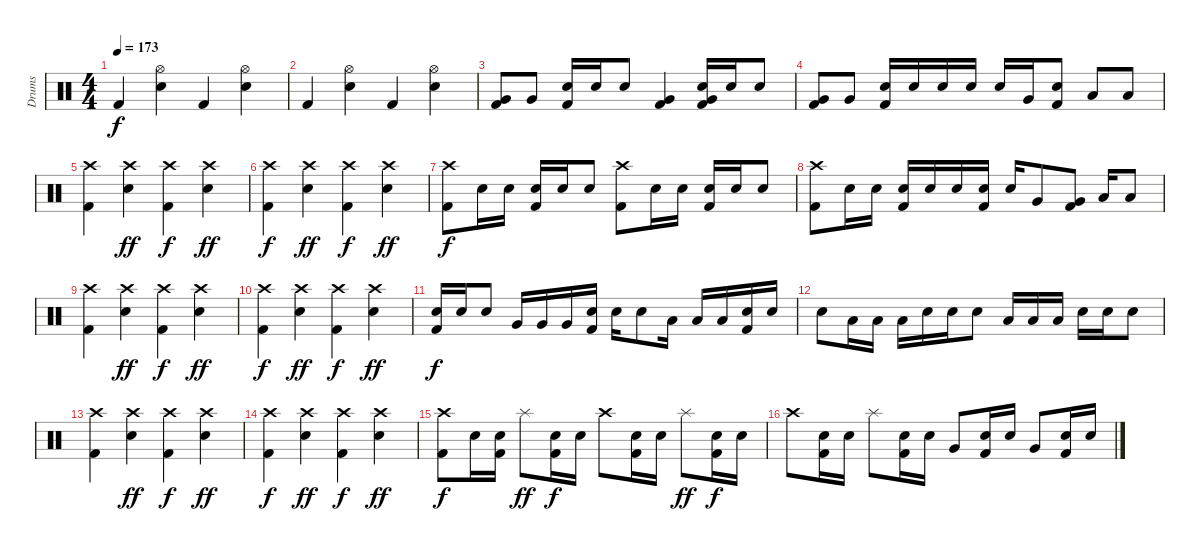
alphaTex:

\track ("Drums" "Drums") {instrument percussion}
\staff {score}
\articulation defaults
\ts (4 4)
\tempo 173
\clef neutral
\ks c "Kick (hit) 2".4{dy f}
("Electric Snare (hit)" "Hi-Hat (open)").4 "Kick (hit) 2".4 ("Electric Snare (hit)" "Hi-Hat (open)").4 |
"Kick (hit) 2".4 ("Electric Snare (hit)" "Hi-Hat (open)").4 "Kick (hit) 2".4 ("Electric Snare (hit)" "Hi-Hat (open)").4 |
("Very Low Tom (hit)" "Kick (hit) 2").8 "Very Low Tom (hit)".8 ("Electric Snare (hit)" "Kick (hit) 2").16 "Electric Snare (hit)".16 "Electric Snare (hit)".8 ("Very Low Tom (hit)" "Kick (hit) 2").4 ("Very Low Tom (hit)" "Electric Snare (hit)" "Kick (hit) 2").16 "Electric Snare (hit)".16 "Electric Snare (hit)".8 |
("Very Low Tom (hit)" "Kick (hit) 2").8 "Very Low Tom (hit)".8 ("Electric Snare (hit)" "Kick (hit) 2").16 "Electric Snare (hit)".16 "Electric Snare (hit)".16 "Electric Snare (hit)".16 "Electric Snare (hit)".16 "Very Low Tom (hit)".16 ("Electric Snare (hit)" "Kick (hit) 2").8 "Low Tom (hit)".8 "Low Tom (hit)".8 |
("Crash high (hit)" "Kick (hit) 2").4 ("Crash high (hit)" "Electric Snare (hit)").4{dy ff} ("Crash high (hit)" "Kick (hit) 2").4{dy f} ("Crash high (hit)" "Electric Snare (hit)").4{dy ff} |
("Crash high (hit)" "Kick (hit) 2").4{dy f} ("Crash high (hit)" "Electric Snare (hit)").4{dy ff} ("Crash high (hit)" "Kick (hit) 2").4{dy f} ("Crash high (hit)" "Electric Snare (hit)").4{dy ff} |
("Crash high (hit)" "Kick (hit) 2").8{dy f} "Electric Snare (hit)".16 "Electric Snare (hit)".16 ("Electric Snare (hit)" "Kick (hit) 2").16 "Electric Snare (hit)".16 "Electric Snare (hit)".8 ("Crash high (hit)" "Kick (hit) 2").8 "Electric Snare (hit)".16 "Electric Snare (hit)".16 ("Electric Snare (hit)" "Kick (hit) 2").16 "Electric Snare (hit)".16 "Electric Snare (hit)".8 |
("Crash high (hit)" "Kick (hit) 2").8 "Electric Snare (hit)".16 "Electric Snare (hit)".16 ("Electric Snare (hit)" "Kick (hit) 2").16 "Electric Snare (hit)".16 "Electric Snare (hit)".16 ("Electric Snare (hit)" "Kick (hit) 2").16 "Electric Snare (hit)".16 "Very Low Tom (hit)".8 ("Very Low Tom (hit)" "Kick (hit) 2").8 "Low Tom (hit)".16 "Low Tom (hit)".8 |
("Crash high (hit)" "Kick (hit) 2").4 ("Crash high (hit)" "Electric Snare (hit)").4{dy ff} ("Crash high (hit)" "Kick (hit) 2").4{dy f} ("Crash high (hit)" "Electric Snare (hit)").4{dy ff} |
("Crash high (hit)" "Kick (hit) 2").4{dy f} ("Crash high (hit)" "Electric Snare (hit)").4{dy ff} ("Crash high (hit)" "Kick (hit) 2").4{dy f} ("Crash high (hit)" "Electric Snare (hit)").4{dy ff} |
("Electric Snare (hit)" "Kick (hit) 2").16{dy f} "Electric Snare (hit)".16 "Electric Snare (hit)".8 "Very Low Tom (hit)".16 "Very Low Tom (hit)".16 "Very Low Tom (hit)".16 ("Electric Snare (hit)" "Kick (hit) 2").16 "Electric Snare (hit)".16 "Electric Snare (hit)".8 "Low Tom (hit)".16 "Low Tom (hit)".16 "Low Tom (hit)".16 ("Electric Snare (hit)" "Kick (hit) 2").16 "Electric Snare (hit)".16 |
"Electric Snare (hit)".8 "Low Floor Tom (hit)".16 "Low Floor Tom (hit)".16 "Low Floor Tom (hit)".16 "Electric Snare (hit)".16 "Electric Snare (hit)".16 "Electric Snare (hit)".8 "Low Floor Tom (hit)".16 "Low Floor Tom (hit)".16 "Low Floor Tom (hit)".16 "Electric Snare (hit)".16 "Electric Snare (hit)".16 "Electric Snare (hit)".8 |
("Crash high (hit)" "Kick (hit) 2").4 ("Crash high (hit)" "Electric Snare (hit)").4{dy ff} ("Crash high (hit)" "Kick (hit) 2").4{dy f} ("Crash high (hit)" "Electric Snare (hit)").4{dy ff} |
("Crash high (hit)" "Kick (hit) 2").4{dy f} ("Crash high (hit)" "Electric Snare (hit)").4{dy ff} ("Crash high (hit)" "Kick (hit) 2").4{dy f} ("Crash high (hit)" "Electric Snare (hit)").4{dy ff} |
("Crash high (hit)" "Kick (hit) 2").8{dy f} "Electric Snare (hit)".16 ("Electric Snare (hit)" "Kick (hit) 2").16 "Splash (hit)".8{dy ff} ("Electric Snare (hit)" "Kick (hit) 2").16{dy f} "Electric Snare (hit)".16 "Crash high (hit)".8 ("Electric Snare (hit)" "Kick (hit) 2").16 "Electric Snare (hit)".16 "Splash (hit)".8{dy ff} ("Electric Snare (hit)" "Kick (hit) 2").16{dy f} "Electric Snare (hit)".16 |
"Crash high (hit)".8 ("Electric Snare (hit)" "Kick (hit) 2").16 "Electric Snare (hit)".16 "Splash (hit)".8 ("Electric Snare (hit)" "Kick (hit) 2").16 "Electric Snare (hit)".16 "Very Low Tom (hit)".8 ("Electric Snare (hit)" "Kick (hit) 2").16 "Electric Snare (hit)".16 "Very Low Tom (hit)".8 ("Electric Snare (hit)" "Kick (hit) 2").16 "Electric Snare (hit)".16
